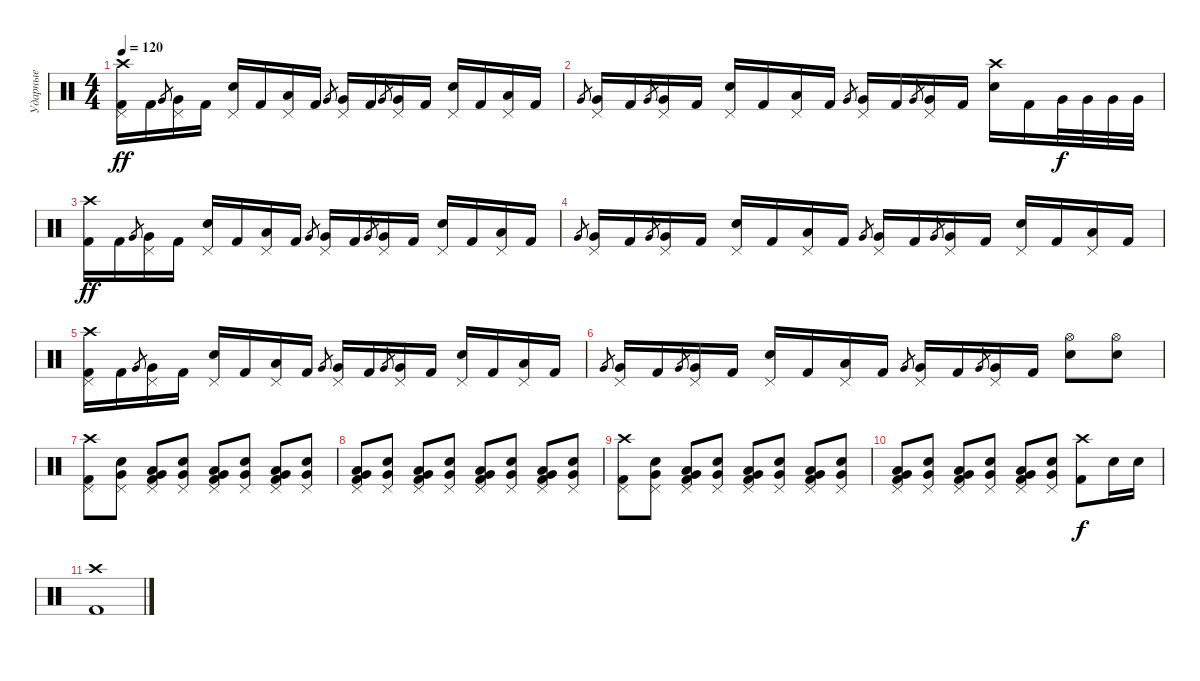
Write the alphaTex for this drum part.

\track ("Ударные" "Ударные") {instrument percussion}
\staff {score}
\articulation defaults
\ts (4 4)
\tempo 120
\clef neutral
\ks c
("Pedal Hi-Hat (hit)" "Kick (hit) 2" "Crash high (hit)").16{dy ff} "Kick (hit) 2".16 "Very Low Tom (hit)".8{gr} ("Pedal Hi-Hat (hit)" "Very Low Tom (hit)").16 "Kick (hit) 2".16 ("Pedal Hi-Hat (hit)" "Electric Snare (hit)").16 "Kick (hit) 2".16 ("Pedal Hi-Hat (hit)" "Low Tom (hit)").16 "Kick (hit) 2".16 "Very Low Tom (hit)".8{gr} ("Pedal Hi-Hat (hit)" "Very Low Tom (hit)").16 "Kick (hit) 2".16 "Very Low Tom (hit)".8{gr} ("Pedal Hi-Hat (hit)" "Very Low Tom (hit)").16 "Kick (hit) 2".16 ("Pedal Hi-Hat (hit)" "Electric Snare (hit)").16 "Kick (hit) 2".16 ("Pedal Hi-Hat (hit)" "Low Tom (hit)").16 "Kick (hit) 2".16 |
"Very Low Tom (hit)".8{gr} ("Pedal Hi-Hat (hit)" "Very Low Tom (hit)").16 "Kick (hit) 2".16 "Very Low Tom (hit)".8{gr} ("Pedal Hi-Hat (hit)" "Very Low Tom (hit)").16 "Kick (hit) 2".16 ("Pedal Hi-Hat (hit)" "Electric Snare (hit)").16 "Kick (hit) 2".16 ("Pedal Hi-Hat (hit)" "Low Tom (hit)").16 "Kick (hit) 2".16 "Very Low Tom (hit)".8{gr} ("Pedal Hi-Hat (hit)" "Very Low Tom (hit)").16 "Kick (hit) 2".16 "Very Low Tom (hit)".8{gr} ("Pedal Hi-Hat (hit)" "Very Low Tom (hit)").16 "Kick (hit) 2".16 ("Crash high (hit)" "Electric Snare (hit)").16 "Kick (hit) 2".16 "Very Low Tom (hit)".32{dy f} "Very Low Tom (hit)".32 "Very Low Tom (hit)".32 "Very Low Tom (hit)".32 |
("Kick (hit) 2" "Crash high (hit)").16{dy ff} "Kick (hit) 2".16 "Very Low Tom (hit)".8{gr} ("Pedal Hi-Hat (hit)" "Very Low Tom (hit)").16 "Kick (hit) 2".16 ("Pedal Hi-Hat (hit)" "Electric Snare (hit)").16 "Kick (hit) 2".16 ("Pedal Hi-Hat (hit)" "Low Tom (hit)").16 "Kick (hit) 2".16 "Very Low Tom (hit)".8{gr} ("Pedal Hi-Hat (hit)" "Very Low Tom (hit)").16 "Kick (hit) 2".16 "Very Low Tom (hit)".8{gr} ("Pedal Hi-Hat (hit)" "Very Low Tom (hit)").16 "Kick (hit) 2".16 ("Pedal Hi-Hat (hit)" "Electric Snare (hit)").16 "Kick (hit) 2".16 ("Pedal Hi-Hat (hit)" "Low Tom (hit)").16 "Kick (hit) 2".16 |
"Very Low Tom (hit)".8{gr} ("Pedal Hi-Hat (hit)" "Very Low Tom (hit)").16 "Kick (hit) 2".16 "Very Low Tom (hit)".8{gr} ("Pedal Hi-Hat (hit)" "Very Low Tom (hit)").16 "Kick (hit) 2".16 ("Pedal Hi-Hat (hit)" "Electric Snare (hit)").16 "Kick (hit) 2".16 ("Pedal Hi-Hat (hit)" "Low Tom (hit)").16 "Kick (hit) 2".16 "Very Low Tom (hit)".8{gr} ("Pedal Hi-Hat (hit)" "Very Low Tom (hit)").16 "Kick (hit) 2".16 "Very Low Tom (hit)".8{gr} ("Pedal Hi-Hat (hit)" "Very Low Tom (hit)").16 "Kick (hit) 2".16 ("Pedal Hi-Hat (hit)" "Electric Snare (hit)").16 "Kick (hit) 2".16 ("Pedal Hi-Hat (hit)" "Low Tom (hit)").16 "Kick (hit) 2".16 |
("Pedal Hi-Hat (hit)" "Kick (hit) 2" "Crash high (hit)").16 "Kick (hit) 2".16 "Very Low Tom (hit)".8{gr} ("Pedal Hi-Hat (hit)" "Very Low Tom (hit)").16 "Kick (hit) 2".16 ("Pedal Hi-Hat (hit)" "Electric Snare (hit)").16 "Kick (hit) 2".16 ("Pedal Hi-Hat (hit)" "Low Tom (hit)").16 "Kick (hit) 2".16 "Very Low Tom (hit)".8{gr} ("Pedal Hi-Hat (hit)" "Very Low Tom (hit)").16 "Kick (hit) 2".16 "Very Low Tom (hit)".8{gr} ("Pedal Hi-Hat (hit)" "Very Low Tom (hit)").16 "Kick (hit) 2".16 ("Pedal Hi-Hat (hit)" "Electric Snare (hit)").16 "Kick (hit) 2".16 ("Pedal Hi-Hat (hit)" "Low Tom (hit)").16 "Kick (hit) 2".16 |
"Very Low Tom (hit)".8{gr} ("Pedal Hi-Hat (hit)" "Very Low Tom (hit)").16 "Kick (hit) 2".16 "Very Low Tom (hit)".8{gr} ("Pedal Hi-Hat (hit)" "Very Low Tom (hit)").16 "Kick (hit) 2".16 ("Pedal Hi-Hat (hit)" "Electric Snare (hit)").16 "Kick (hit) 2".16 ("Pedal Hi-Hat (hit)" "Low Tom (hit)").16 "Kick (hit) 2".16 "Very Low Tom (hit)".8{gr} ("Pedal Hi-Hat (hit)" "Very Low Tom (hit)").16 "Kick (hit) 2".16 "Very Low Tom (hit)".8{gr} ("Pedal Hi-Hat (hit)" "Very Low Tom (hit)").16 "Kick (hit) 2".16 ("Hi-Hat (open)" "Electric Snare (hit)").8 ("Hi-Hat (open)" "Electric Snare (hit)").8 |
("Pedal Hi-Hat (hit)" "Kick (hit) 2" "Crash high (hit)").8 ("Pedal Hi-Hat (hit)" "Very Low Tom (hit)" "Electric Snare (hit)").8 ("Pedal Hi-Hat (hit)" "Very Low Tom (hit)" "Kick (hit) 2" "Low Tom (hit)").8 ("Pedal Hi-Hat (hit)" "Very Low Tom (hit)" "Electric Snare (hit)").8 ("Pedal Hi-Hat (hit)" "Very Low Tom (hit)" "Kick (hit) 2" "Low Tom (hit)").8 ("Pedal Hi-Hat (hit)" "Very Low Tom (hit)" "Electric Snare (hit)").8 ("Pedal Hi-Hat (hit)" "Very Low Tom (hit)" "Kick (hit) 2" "Low Tom (hit)").8 ("Pedal Hi-Hat (hit)" "Very Low Tom (hit)" "Electric Snare (hit)").8 |
("Pedal Hi-Hat (hit)" "Very Low Tom (hit)" "Kick (hit) 2" "Low Tom (hit)").8 ("Pedal Hi-Hat (hit)" "Very Low Tom (hit)" "Electric Snare (hit)").8 ("Pedal Hi-Hat (hit)" "Very Low Tom (hit)" "Kick (hit) 2" "Low Tom (hit)").8 ("Pedal Hi-Hat (hit)" "Very Low Tom (hit)" "Electric Snare (hit)").8 ("Pedal Hi-Hat (hit)" "Very Low Tom (hit)" "Kick (hit) 2" "Low Tom (hit)").8 ("Pedal Hi-Hat (hit)" "Very Low Tom (hit)" "Electric Snare (hit)").8 ("Pedal Hi-Hat (hit)" "Very Low Tom (hit)" "Kick (hit) 2" "Low Tom (hit)").8 ("Pedal Hi-Hat (hit)" "Very Low Tom (hit)" "Electric Snare (hit)").8 |
("Pedal Hi-Hat (hit)" "Kick (hit) 2" "Crash high (hit)").8 ("Pedal Hi-Hat (hit)" "Very Low Tom (hit)" "Electric Snare (hit)").8 ("Pedal Hi-Hat (hit)" "Very Low Tom (hit)" "Kick (hit) 2" "Low Tom (hit)").8 ("Pedal Hi-Hat (hit)" "Very Low Tom (hit)" "Electric Snare (hit)").8 ("Pedal Hi-Hat (hit)" "Very Low Tom (hit)" "Kick (hit) 2" "Low Tom (hit)").8 ("Pedal Hi-Hat (hit)" "Very Low Tom (hit)" "Electric Snare (hit)").8 ("Pedal Hi-Hat (hit)" "Very Low Tom (hit)" "Kick (hit) 2" "Low Tom (hit)").8 ("Pedal Hi-Hat (hit)" "Very Low Tom (hit)" "Electric Snare (hit)").8 |
("Pedal Hi-Hat (hit)" "Very Low Tom (hit)" "Kick (hit) 2" "Low Tom (hit)").8 ("Pedal Hi-Hat (hit)" "Very Low Tom (hit)" "Electric Snare (hit)").8 ("Pedal Hi-Hat (hit)" "Very Low Tom (hit)" "Kick (hit) 2" "Low Tom (hit)").8 ("Pedal Hi-Hat (hit)" "Very Low Tom (hit)" "Electric Snare (hit)").8 ("Pedal Hi-Hat (hit)" "Very Low Tom (hit)" "Kick (hit) 2" "Low Tom (hit)").8 ("Pedal Hi-Hat (hit)" "Very Low Tom (hit)" "Electric Snare (hit)").8 ("Kick (hit) 2" "Crash high (hit)").8{dy f} "Electric Snare (hit)".16 "Electric Snare (hit)".16 |
("Kick (hit) 2" "Crash high (hit)").1
